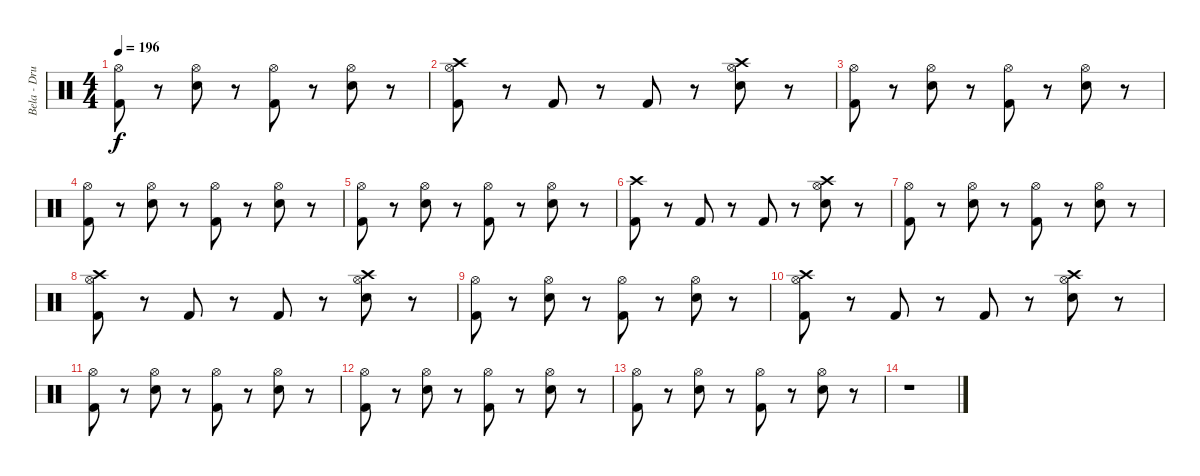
\track ("Bela - Drums" "Bela - Dru") {instrument percussion}
\staff {score}
\articulation defaults
\ts (4 4)
\tempo 196
\clef neutral
\ks c
("Kick (hit) 2" "Hi-Hat (open)").8{dy f} r.8 ("Electric Snare (hit)" "Hi-Hat (open)").8 r.8 ("Hi-Hat (open)" "Kick (hit) 2").8 r.8 ("Electric Snare (hit)" "Hi-Hat (open)").8 r.8 |
("Crash high (hit)" "Kick (hit) 2" "Hi-Hat (open)").8 r.8 "Kick (hit) 2".8 r.8 "Kick (hit) 2".8 r.8 ("Crash high (hit)" "Electric Snare (hit)" "Hi-Hat (open)").8 r.8 |
("Kick (hit) 2" "Hi-Hat (open)").8 r.8 ("Electric Snare (hit)" "Hi-Hat (open)").8 r.8 ("Hi-Hat (open)" "Kick (hit) 2").8 r.8 ("Electric Snare (hit)" "Hi-Hat (open)").8 r.8 |
("Kick (hit) 2" "Hi-Hat (open)").8 r.8 ("Electric Snare (hit)" "Hi-Hat (open)").8 r.8 ("Hi-Hat (open)" "Kick (hit) 2").8 r.8 ("Electric Snare (hit)" "Hi-Hat (open)").8 r.8 |
("Kick (hit) 2" "Hi-Hat (open)").8 r.8 ("Electric Snare (hit)" "Hi-Hat (open)").8 r.8 ("Hi-Hat (open)" "Kick (hit) 2").8 r.8 ("Electric Snare (hit)" "Hi-Hat (open)").8 r.8 |
("Crash high (hit)" "Kick (hit) 2").8 r.8 "Kick (hit) 2".8 r.8 "Kick (hit) 2".8 r.8 ("Hi-Hat (open)" "Electric Snare (hit)" "Crash high (hit)").8 r.8 |
("Hi-Hat (open)" "Kick (hit) 2").8 r.8 ("Hi-Hat (open)" "Electric Snare (hit)").8 r.8 ("Hi-Hat (open)" "Kick (hit) 2").8 r.8 ("Hi-Hat (open)" "Electric Snare (hit)").8 r.8 |
("Crash high (hit)" "Kick (hit) 2" "Hi-Hat (open)").8 r.8 "Kick (hit) 2".8 r.8 "Kick (hit) 2".8 r.8 ("Crash high (hit)" "Electric Snare (hit)" "Hi-Hat (open)").8 r.8 |
("Kick (hit) 2" "Hi-Hat (open)").8 r.8 ("Electric Snare (hit)" "Hi-Hat (open)").8 r.8 ("Hi-Hat (open)" "Kick (hit) 2").8 r.8 ("Electric Snare (hit)" "Hi-Hat (open)").8 r.8 |
("Crash high (hit)" "Kick (hit) 2" "Hi-Hat (open)").8 r.8 "Kick (hit) 2".8 r.8 "Kick (hit) 2".8 r.8 ("Crash high (hit)" "Electric Snare (hit)" "Hi-Hat (open)").8 r.8 |
("Kick (hit) 2" "Hi-Hat (open)").8 r.8 ("Electric Snare (hit)" "Hi-Hat (open)").8 r.8 ("Hi-Hat (open)" "Kick (hit) 2").8 r.8 ("Electric Snare (hit)" "Hi-Hat (open)").8 r.8 |
("Kick (hit) 2" "Hi-Hat (open)").8 r.8 ("Electric Snare (hit)" "Hi-Hat (open)").8 r.8 ("Hi-Hat (open)" "Kick (hit) 2").8 r.8 ("Electric Snare (hit)" "Hi-Hat (open)").8 r.8 |
("Kick (hit) 2" "Hi-Hat (open)").8 r.8 ("Electric Snare (hit)" "Hi-Hat (open)").8 r.8 ("Hi-Hat (open)" "Kick (hit) 2").8 r.8 ("Electric Snare (hit)" "Hi-Hat (open)").8 r.8 |
r.1
